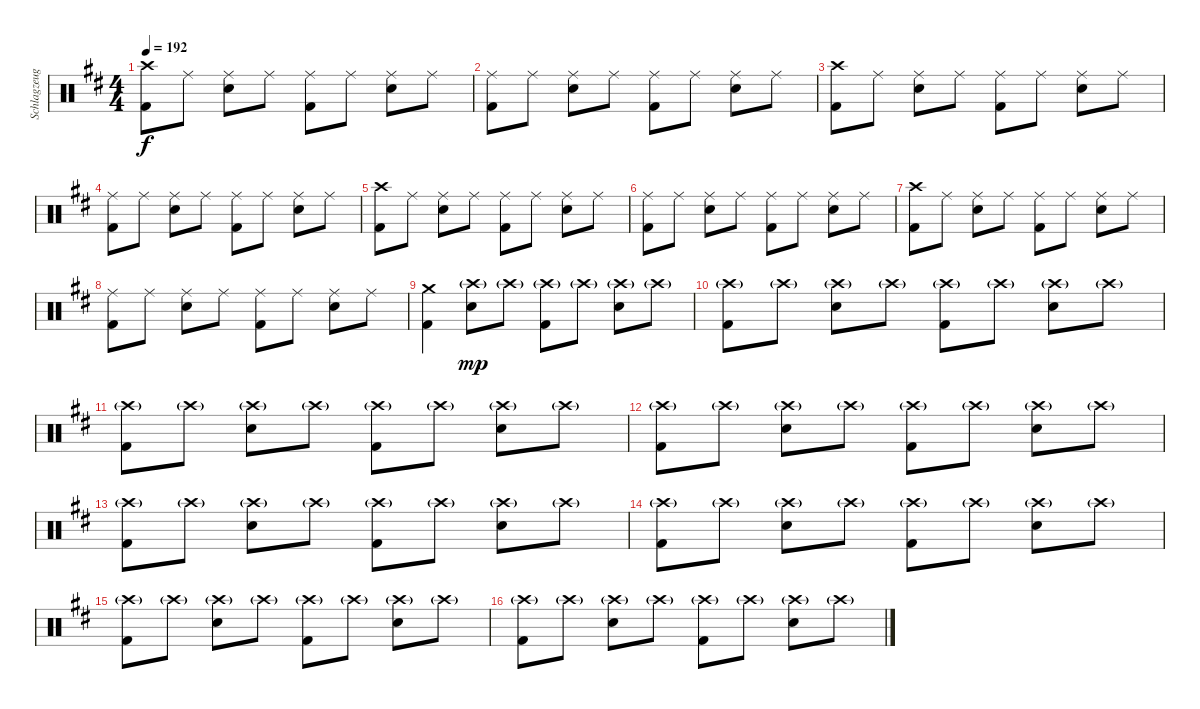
\track ("Schlagzeug - Vom" "Schlagzeug") {instrument percussion}
\staff {score}
\articulation defaults
\ts (4 4)
\tempo 192
\clef neutral
\ks d
("Crash high (hit)" "Kick (hit) 2").8{dy f} "Ride (middle)".8 ("Ride (middle)" "Snare (hit) 2").8 "Ride (middle)".8 ("Ride (middle)" "Kick (hit) 2").8 "Ride (middle)".8 ("Ride (middle)" "Snare (hit) 2").8 "Ride (middle)".8 |
("Ride (middle)" "Kick (hit) 2").8 "Ride (middle)".8 ("Ride (middle)" "Snare (hit) 2").8 "Ride (middle)".8 ("Ride (middle)" "Kick (hit) 2").8 "Ride (middle)".8 ("Ride (middle)" "Snare (hit) 2").8 "Ride (middle)".8 |
("Crash high (hit)" "Kick (hit) 2").8 "Ride (middle)".8 ("Ride (middle)" "Snare (hit) 2").8 "Ride (middle)".8 ("Ride (middle)" "Kick (hit) 2").8 "Ride (middle)".8 ("Ride (middle)" "Snare (hit) 2").8 "Ride (middle)".8 |
("Ride (middle)" "Kick (hit) 2").8 "Ride (middle)".8 ("Ride (middle)" "Snare (hit) 2").8 "Ride (middle)".8 ("Ride (middle)" "Kick (hit) 2").8 "Ride (middle)".8 ("Ride (middle)" "Snare (hit) 2").8 "Ride (middle)".8 |
("Crash high (hit)" "Kick (hit) 2").8 "Ride (middle)".8 ("Ride (middle)" "Snare (hit) 2").8 "Ride (middle)".8 ("Ride (middle)" "Kick (hit) 2").8 "Ride (middle)".8 ("Ride (middle)" "Snare (hit) 2").8 "Ride (middle)".8 |
("Ride (middle)" "Kick (hit) 2").8 "Ride (middle)".8 ("Ride (middle)" "Snare (hit) 2").8 "Ride (middle)".8 ("Ride (middle)" "Kick (hit) 2").8 "Ride (middle)".8 ("Ride (middle)" "Snare (hit) 2").8 "Ride (middle)".8 |
("Crash high (hit)" "Kick (hit) 2").8 "Ride (middle)".8 ("Ride (middle)" "Snare (hit) 2").8 "Ride (middle)".8 ("Ride (middle)" "Kick (hit) 2").8 "Ride (middle)".8 ("Ride (middle)" "Snare (hit) 2").8 "Ride (middle)".8 |
("Ride (middle)" "Kick (hit) 2").8 "Ride (middle)".8 ("Ride (middle)" "Snare (hit) 2").8 "Ride (middle)".8 ("Ride (middle)" "Kick (hit) 2").8 "Ride (middle)".8 ("Ride (middle)" "Snare (hit) 2").8 "Ride (middle)".8 |
("Crash medium (hit)" "Kick (hit) 2").4 ("Crash high (hit)"{g} "Snare (hit) 2").8{dy mp} "Crash high (hit)"{g}.8 ("Crash high (hit)"{g} "Kick (hit) 2").8 "Crash high (hit)"{g}.8 ("Crash high (hit)"{g} "Snare (hit) 2").8 "Crash high (hit)"{g}.8 |
("Crash high (hit)"{g} "Kick (hit) 2").8 "Crash high (hit)"{g}.8 ("Crash high (hit)"{g} "Snare (hit) 2").8 "Crash high (hit)"{g}.8 ("Crash high (hit)"{g} "Kick (hit) 2").8 "Crash high (hit)"{g}.8 ("Crash high (hit)"{g} "Snare (hit) 2").8 "Crash high (hit)"{g}.8 |
("Crash high (hit)"{g} "Kick (hit) 2").8 "Crash high (hit)"{g}.8 ("Crash high (hit)"{g} "Snare (hit) 2").8 "Crash high (hit)"{g}.8 ("Crash high (hit)"{g} "Kick (hit) 2").8 "Crash high (hit)"{g}.8 ("Crash high (hit)"{g} "Snare (hit) 2").8 "Crash high (hit)"{g}.8 |
("Crash high (hit)"{g} "Kick (hit) 2").8 "Crash high (hit)"{g}.8 ("Crash high (hit)"{g} "Snare (hit) 2").8 "Crash high (hit)"{g}.8 ("Crash high (hit)"{g} "Kick (hit) 2").8 "Crash high (hit)"{g}.8 ("Crash high (hit)"{g} "Snare (hit) 2").8 "Crash high (hit)"{g}.8 |
("Crash high (hit)"{g} "Kick (hit) 2").8 "Crash high (hit)"{g}.8 ("Crash high (hit)"{g} "Snare (hit) 2").8 "Crash high (hit)"{g}.8 ("Crash high (hit)"{g} "Kick (hit) 2").8 "Crash high (hit)"{g}.8 ("Crash high (hit)"{g} "Snare (hit) 2").8 "Crash high (hit)"{g}.8 |
("Crash high (hit)"{g} "Kick (hit) 2").8 "Crash high (hit)"{g}.8 ("Crash high (hit)"{g} "Snare (hit) 2").8 "Crash high (hit)"{g}.8 ("Crash high (hit)"{g} "Kick (hit) 2").8 "Crash high (hit)"{g}.8 ("Crash high (hit)"{g} "Snare (hit) 2").8 "Crash high (hit)"{g}.8 |
("Crash high (hit)"{g} "Kick (hit) 2").8 "Crash high (hit)"{g}.8 ("Crash high (hit)"{g} "Snare (hit) 2").8 "Crash high (hit)"{g}.8 ("Crash high (hit)"{g} "Kick (hit) 2").8 "Crash high (hit)"{g}.8 ("Crash high (hit)"{g} "Snare (hit) 2").8 "Crash high (hit)"{g}.8 |
("Crash high (hit)"{g} "Kick (hit) 2").8 "Crash high (hit)"{g}.8 ("Crash high (hit)"{g} "Snare (hit) 2").8 "Crash high (hit)"{g}.8 ("Crash high (hit)"{g} "Kick (hit) 2").8 "Crash high (hit)"{g}.8 ("Crash high (hit)"{g} "Snare (hit) 2").8 "Crash high (hit)"{g}.8
